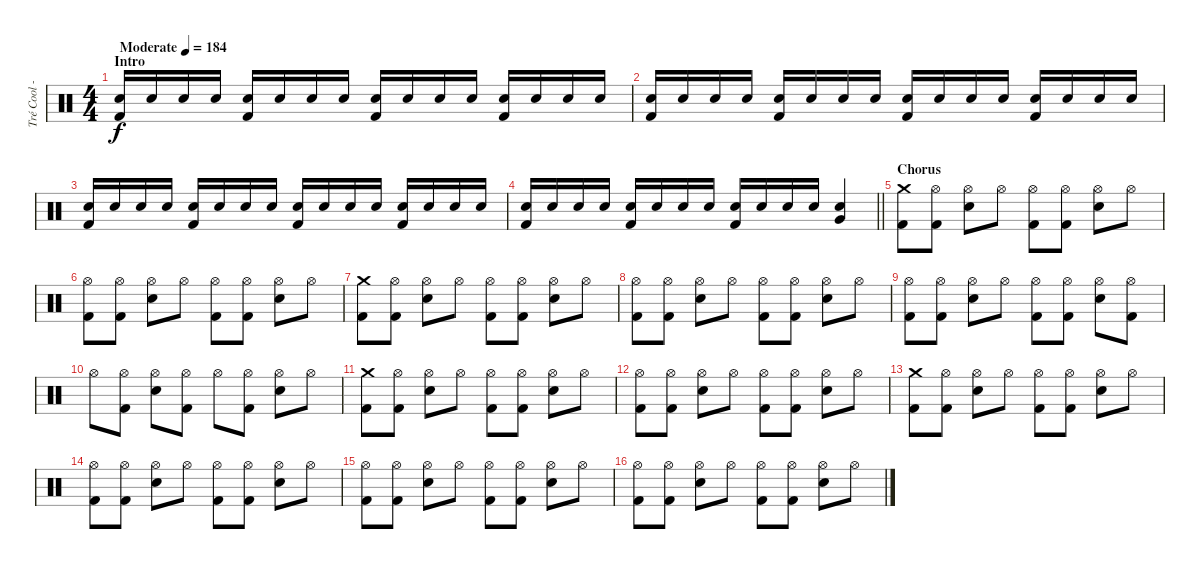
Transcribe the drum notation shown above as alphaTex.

\track ("Tré Cool - Drums" "Tré Cool -") {instrument percussion}
\staff {score}
\articulation defaults
\ts (4 4)
\section ("" "Intro")
\tempo (184 "Moderate")
\clef neutral
\ks c
("Electric Snare (hit)" "Kick (hit) 2").16{dy f volume 9} "Electric Snare (hit)".16 "Electric Snare (hit)".16 "Electric Snare (hit)".16 ("Electric Snare (hit)" "Kick (hit) 2").16 "Electric Snare (hit)".16 "Electric Snare (hit)".16 "Electric Snare (hit)".16 ("Electric Snare (hit)" "Kick (hit) 2").16 "Electric Snare (hit)".16 "Electric Snare (hit)".16 "Electric Snare (hit)".16 ("Electric Snare (hit)" "Kick (hit) 2").16 "Electric Snare (hit)".16 "Electric Snare (hit)".16 "Electric Snare (hit)".16 |
("Electric Snare (hit)" "Kick (hit) 2").16{volume 13} "Electric Snare (hit)".16 "Electric Snare (hit)".16 "Electric Snare (hit)".16 ("Electric Snare (hit)" "Kick (hit) 2").16 "Electric Snare (hit)".16 "Electric Snare (hit)".16 "Electric Snare (hit)".16 ("Electric Snare (hit)" "Kick (hit) 2").16 "Electric Snare (hit)".16 "Electric Snare (hit)".16 "Electric Snare (hit)".16 ("Electric Snare (hit)" "Kick (hit) 2").16 "Electric Snare (hit)".16 "Electric Snare (hit)".16 "Electric Snare (hit)".16 |
("Electric Snare (hit)" "Kick (hit) 2").16 "Electric Snare (hit)".16 "Electric Snare (hit)".16 "Electric Snare (hit)".16 ("Electric Snare (hit)" "Kick (hit) 2").16 "Electric Snare (hit)".16 "Electric Snare (hit)".16 "Electric Snare (hit)".16 ("Electric Snare (hit)" "Kick (hit) 2").16 "Electric Snare (hit)".16 "Electric Snare (hit)".16 "Electric Snare (hit)".16 ("Electric Snare (hit)" "Kick (hit) 2").16 "Electric Snare (hit)".16 "Electric Snare (hit)".16 "Electric Snare (hit)".16 |
\barLineRight lightlight
("Electric Snare (hit)" "Kick (hit) 2").16 "Electric Snare (hit)".16 "Electric Snare (hit)".16 "Electric Snare (hit)".16 ("Electric Snare (hit)" "Kick (hit) 2").16 "Electric Snare (hit)".16 "Electric Snare (hit)".16 "Electric Snare (hit)".16 ("Electric Snare (hit)" "Kick (hit) 2").16 "Electric Snare (hit)".16 "Electric Snare (hit)".16 "Electric Snare (hit)".16 ("Electric Snare (hit)" "Very Low Tom (hit)").4{volume 15} |
\section ("" "Chorus")
("Crash medium (hit)" "Kick (hit) 2").8{volume 11} ("Hi-Hat (open)" "Kick (hit) 2").8 ("Hi-Hat (open)" "Electric Snare (hit)").8 "Hi-Hat (open)".8 ("Hi-Hat (open)" "Kick (hit) 2").8 ("Hi-Hat (open)" "Kick (hit) 2").8 ("Hi-Hat (open)" "Electric Snare (hit)").8 "Hi-Hat (open)".8 |
("Hi-Hat (open)" "Kick (hit) 2").8 ("Hi-Hat (open)" "Kick (hit) 2").8 ("Hi-Hat (open)" "Electric Snare (hit)").8 "Hi-Hat (open)".8 ("Hi-Hat (open)" "Kick (hit) 2").8 ("Hi-Hat (open)" "Kick (hit) 2").8 ("Hi-Hat (open)" "Electric Snare (hit)").8 "Hi-Hat (open)".8 |
("Crash medium (hit)" "Kick (hit) 2").8 ("Hi-Hat (open)" "Kick (hit) 2").8 ("Hi-Hat (open)" "Electric Snare (hit)").8 "Hi-Hat (open)".8 ("Hi-Hat (open)" "Kick (hit) 2").8 ("Hi-Hat (open)" "Kick (hit) 2").8 ("Hi-Hat (open)" "Electric Snare (hit)").8 "Hi-Hat (open)".8 |
("Hi-Hat (open)" "Kick (hit) 2").8 ("Hi-Hat (open)" "Kick (hit) 2").8 ("Hi-Hat (open)" "Electric Snare (hit)").8 "Hi-Hat (open)".8 ("Hi-Hat (open)" "Kick (hit) 2").8 ("Hi-Hat (open)" "Kick (hit) 2").8 ("Hi-Hat (open)" "Electric Snare (hit)").8 "Hi-Hat (open)".8 |
("Hi-Hat (open)" "Kick (hit) 2").8 ("Hi-Hat (open)" "Kick (hit) 2").8 ("Hi-Hat (open)" "Electric Snare (hit)").8 "Hi-Hat (open)".8 ("Hi-Hat (open)" "Kick (hit) 2").8 ("Hi-Hat (open)" "Kick (hit) 2").8 ("Hi-Hat (open)" "Electric Snare (hit)").8 ("Hi-Hat (open)" "Kick (hit) 2").8 |
"Hi-Hat (open)".8 ("Hi-Hat (open)" "Kick (hit) 2").8 ("Hi-Hat (open)" "Electric Snare (hit)").8 ("Hi-Hat (open)" "Kick (hit) 2").8 "Hi-Hat (open)".8 ("Hi-Hat (open)" "Kick (hit) 2").8 ("Hi-Hat (open)" "Electric Snare (hit)").8 "Hi-Hat (open)".8 |
("Crash medium (hit)" "Kick (hit) 2").8 ("Hi-Hat (open)" "Kick (hit) 2").8 ("Hi-Hat (open)" "Electric Snare (hit)").8 "Hi-Hat (open)".8 ("Hi-Hat (open)" "Kick (hit) 2").8 ("Hi-Hat (open)" "Kick (hit) 2").8 ("Hi-Hat (open)" "Electric Snare (hit)").8 "Hi-Hat (open)".8 |
("Hi-Hat (open)" "Kick (hit) 2").8 ("Hi-Hat (open)" "Kick (hit) 2").8 ("Hi-Hat (open)" "Electric Snare (hit)").8 "Hi-Hat (open)".8 ("Hi-Hat (open)" "Kick (hit) 2").8 ("Hi-Hat (open)" "Kick (hit) 2").8 ("Hi-Hat (open)" "Electric Snare (hit)").8 "Hi-Hat (open)".8 |
("Crash medium (hit)" "Kick (hit) 2").8 ("Hi-Hat (open)" "Kick (hit) 2").8 ("Hi-Hat (open)" "Electric Snare (hit)").8 "Hi-Hat (open)".8 ("Hi-Hat (open)" "Kick (hit) 2").8 ("Hi-Hat (open)" "Kick (hit) 2").8 ("Hi-Hat (open)" "Electric Snare (hit)").8 "Hi-Hat (open)".8 |
("Hi-Hat (open)" "Kick (hit) 2").8 ("Hi-Hat (open)" "Kick (hit) 2").8 ("Hi-Hat (open)" "Electric Snare (hit)").8 "Hi-Hat (open)".8 ("Hi-Hat (open)" "Kick (hit) 2").8 ("Hi-Hat (open)" "Kick (hit) 2").8 ("Hi-Hat (open)" "Electric Snare (hit)").8 "Hi-Hat (open)".8 |
("Hi-Hat (open)" "Kick (hit) 2").8 ("Hi-Hat (open)" "Kick (hit) 2").8 ("Hi-Hat (open)" "Electric Snare (hit)").8 "Hi-Hat (open)".8 ("Hi-Hat (open)" "Kick (hit) 2").8 ("Hi-Hat (open)" "Kick (hit) 2").8 ("Hi-Hat (open)" "Electric Snare (hit)").8 "Hi-Hat (open)".8 |
("Hi-Hat (open)" "Kick (hit) 2").8 ("Hi-Hat (open)" "Kick (hit) 2").8 ("Hi-Hat (open)" "Electric Snare (hit)").8 "Hi-Hat (open)".8 ("Hi-Hat (open)" "Kick (hit) 2").8 ("Hi-Hat (open)" "Kick (hit) 2").8 ("Hi-Hat (open)" "Electric Snare (hit)").8 "Hi-Hat (open)".8
